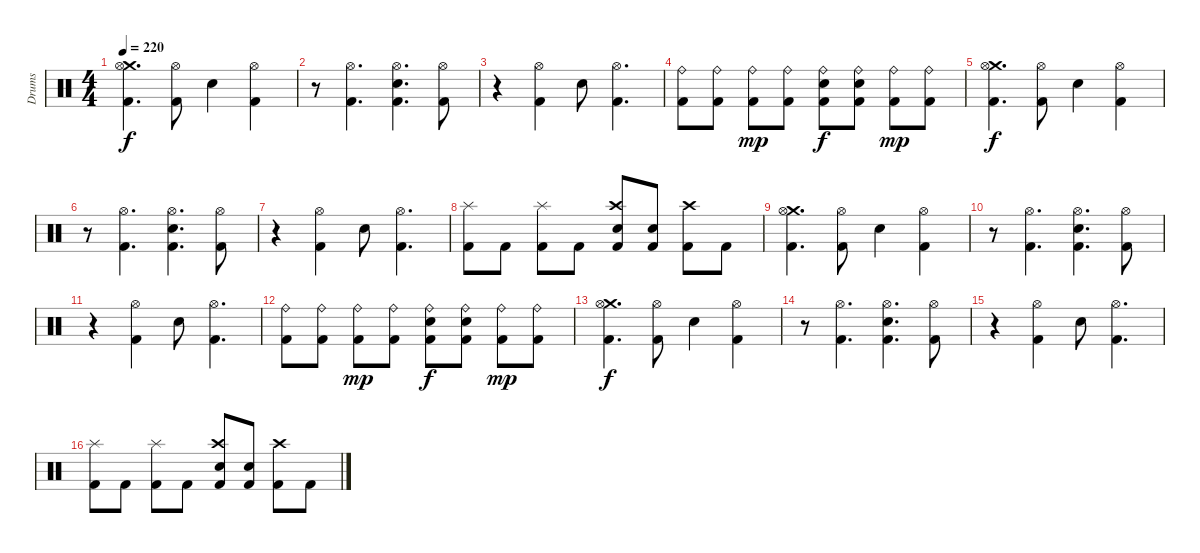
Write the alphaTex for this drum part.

\bracketExtendMode groupsimilarinstruments
\otherSystemsTrackNameOrientation horizontal
\track ("Drumkit" "Drums") {instrument percussion}
\staff {score}
\articulation defaults
\ts (4 4)
\tempo 220
\clef neutral
\ks c
("Crash medium (hit)" "Hi-Hat (open)" "Kick (hit) 2").4{d dy f beam Down} ("Hi-Hat (open)" "Kick (hit) 2").8{beam Down} "Snare (hit) 2".4{beam Down} ("Hi-Hat (open)" "Kick (hit) 2").4{beam Down} |
r.8{beam Down} ("Hi-Hat (open)" "Kick (hit) 2").4{d beam Down} ("Hi-Hat (open)" "Snare (hit) 2" "Kick (hit) 2").4{d beam Down} ("Hi-Hat (open)" "Kick (hit) 2").8{beam Down} |
r.4{beam Down} ("Hi-Hat (open)" "Kick (hit) 2").4{beam Down} "Snare (hit) 2".8{beam Down} ("Hi-Hat (open)" "Kick (hit) 2").4{d beam Down} |
("Ride (bell)" "Kick (hit) 2").8{beam Down} ("Ride (bell)" "Kick (hit) 2").8{beam Down} ("Ride (bell)" "Kick (hit) 2").8{dy mp beam Down} ("Ride (bell)" "Kick (hit) 2").8{beam Down} ("Ride (bell)" "Snare (hit) 2" "Kick (hit) 2").8{dy f beam Down} ("Ride (bell)" "Snare (hit) 2" "Kick (hit) 2").8{beam Down} ("Ride (bell)" "Kick (hit) 2").8{dy mp beam Down} ("Ride (bell)" "Kick (hit) 2").8{beam Down} |
("Crash medium (hit)" "Hi-Hat (open)" "Kick (hit) 2").4{d dy f beam Down} ("Hi-Hat (open)" "Kick (hit) 2").8{beam Down} "Snare (hit) 2".4{beam Down} ("Hi-Hat (open)" "Kick (hit) 2").4{beam Down} |
r.8{beam Down} ("Hi-Hat (open)" "Kick (hit) 2").4{d beam Down} ("Hi-Hat (open)" "Snare (hit) 2" "Kick (hit) 2").4{d beam Down} ("Hi-Hat (open)" "Kick (hit) 2").8{beam Down} |
r.4{beam Down} ("Hi-Hat (open)" "Kick (hit) 2").4{beam Down} "Snare (hit) 2".8{beam Down} ("Hi-Hat (open)" "Kick (hit) 2").4{d beam Down} |
("Splash (hit)" "Kick (hit) 2").8{beam Down} "Kick (hit) 2".8{beam Down} ("Splash (hit)" "Kick (hit) 2").8{beam Down} "Kick (hit) 2".8{beam Down} ("Crash high (hit)" "Snare (hit) 2" "Kick (hit) 2").8{beam Up} ("Snare (hit) 2" "Kick (hit) 2").8{beam Up} ("Crash high (hit)" "Kick (hit) 2").8{beam Down} "Kick (hit) 2".8{beam Down} |
("Crash medium (hit)" "Hi-Hat (open)" "Kick (hit) 2").4{d beam Down} ("Hi-Hat (open)" "Kick (hit) 2").8{beam Down} "Snare (hit) 2".4{beam Down} ("Hi-Hat (open)" "Kick (hit) 2").4{beam Down} |
r.8{beam Down} ("Hi-Hat (open)" "Kick (hit) 2").4{d beam Down} ("Hi-Hat (open)" "Snare (hit) 2" "Kick (hit) 2").4{d beam Down} ("Hi-Hat (open)" "Kick (hit) 2").8{beam Down} |
r.4{beam Down} ("Hi-Hat (open)" "Kick (hit) 2").4{beam Down} "Snare (hit) 2".8{beam Down} ("Hi-Hat (open)" "Kick (hit) 2").4{d beam Down} |
("Ride (bell)" "Kick (hit) 2").8{beam Down} ("Ride (bell)" "Kick (hit) 2").8{beam Down} ("Ride (bell)" "Kick (hit) 2").8{dy mp beam Down} ("Ride (bell)" "Kick (hit) 2").8{beam Down} ("Ride (bell)" "Snare (hit) 2" "Kick (hit) 2").8{dy f beam Down} ("Ride (bell)" "Snare (hit) 2" "Kick (hit) 2").8{beam Down} ("Ride (bell)" "Kick (hit) 2").8{dy mp beam Down} ("Ride (bell)" "Kick (hit) 2").8{beam Down} |
("Crash medium (hit)" "Hi-Hat (open)" "Kick (hit) 2").4{d dy f beam Down} ("Hi-Hat (open)" "Kick (hit) 2").8{beam Down} "Snare (hit) 2".4{beam Down} ("Hi-Hat (open)" "Kick (hit) 2").4{beam Down} |
r.8{beam Down} ("Hi-Hat (open)" "Kick (hit) 2").4{d beam Down} ("Hi-Hat (open)" "Snare (hit) 2" "Kick (hit) 2").4{d beam Down} ("Hi-Hat (open)" "Kick (hit) 2").8{beam Down} |
r.4{beam Down} ("Hi-Hat (open)" "Kick (hit) 2").4{beam Down} "Snare (hit) 2".8{beam Down} ("Hi-Hat (open)" "Kick (hit) 2").4{d beam Down} |
("Splash (hit)" "Kick (hit) 2").8{beam Down} "Kick (hit) 2".8{beam Down} ("Splash (hit)" "Kick (hit) 2").8{beam Down} "Kick (hit) 2".8{beam Down} ("Crash high (hit)" "Snare (hit) 2" "Kick (hit) 2").8{beam Up} ("Snare (hit) 2" "Kick (hit) 2").8{beam Up} ("Crash high (hit)" "Kick (hit) 2").8{beam Down} "Kick (hit) 2".8{beam Down}
